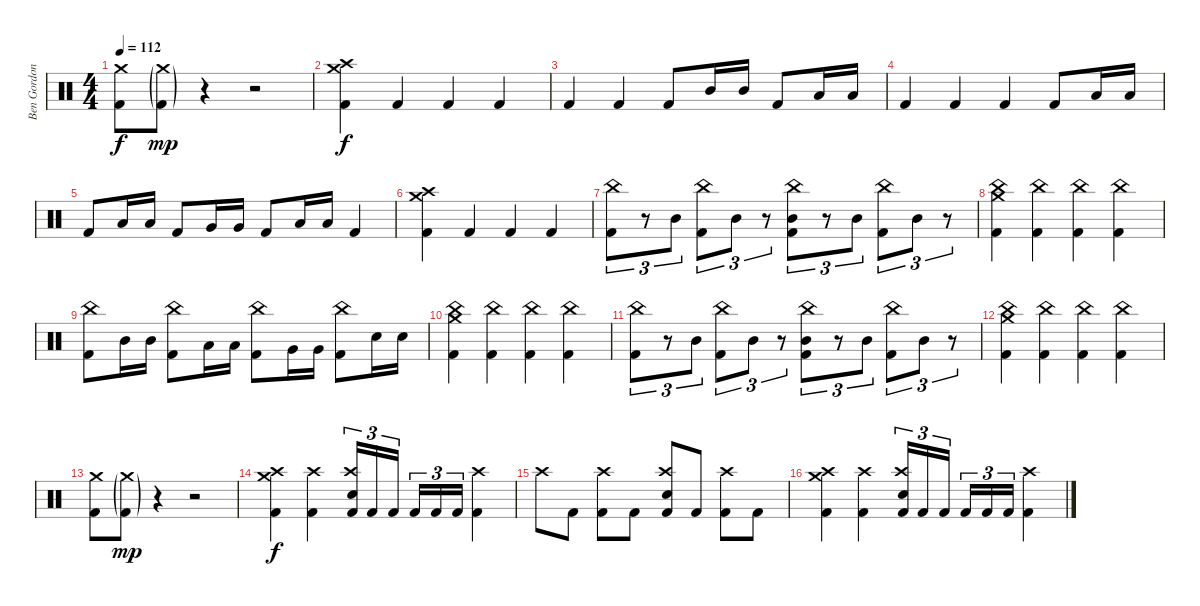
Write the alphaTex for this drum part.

\track ("Ben Gordon" "Ben Gordon") {instrument percussion}
\staff {score}
\articulation defaults
\ts (4 4)
\tempo 112
\clef neutral
\ks c
("Crash medium (hit)" "Kick (hit) 2").8{dy f} ("Crash medium (hit)"{g} "Kick (hit) 2"{g}).8{dy mp} r.4 r.2 |
("Crash medium (hit)" "Crash high (hit)" "Kick (hit) 2").4{dy f} "Kick (hit) 2".4 "Kick (hit) 2".4 "Kick (hit) 2".4 |
"Kick (hit) 2".4 "Kick (hit) 2".4 "Kick (hit) 2".8 "Mid Tom (hit)".16 "Mid Tom (hit)".16 "Kick (hit) 2".8 "Low Tom (hit)".16 "Low Tom (hit)".16 |
"Kick (hit) 2".4 "Kick (hit) 2".4 "Kick (hit) 2".4 "Kick (hit) 2".8 "Low Tom (hit)".16 "Low Tom (hit)".16 |
"Kick (hit) 2".8 "Low Tom (hit)".16 "Low Tom (hit)".16 "Kick (hit) 2".8 "Very Low Tom (hit)".16 "Very Low Tom (hit)".16 "Kick (hit) 2".8 "Low Floor Tom (hit)".16 "Low Floor Tom (hit)".16 "Kick (hit) 2".4 |
("Crash medium (hit)" "Crash high (hit)" "Kick (hit) 2").4 "Kick (hit) 2".4 "Kick (hit) 2".4 "Kick (hit) 2".4 |
("China (hit)" "Kick (hit) 2").8{tu (3 2)} r.8{tu (3 2)} "Mid Tom (hit)".8{tu (3 2)} ("China (hit)" "Kick (hit) 2").8{tu (3 2)} "Mid Tom (hit)".8{tu (3 2)} r.8{tu (3 2)} ("China (hit)" "Mid Tom (hit)" "Kick (hit) 2").8{tu (3 2)} r.8{tu (3 2)} "Mid Tom (hit)".8{tu (3 2)} ("China (hit)" "Kick (hit) 2").8{tu (3 2)} "Mid Tom (hit)".8{tu (3 2)} r.8{tu (3 2)} |
("China (hit)" "Crash medium (hit)" "Kick (hit) 2").4 ("China (hit)" "Kick (hit) 2").4 ("China (hit)" "Kick (hit) 2").4 ("China (hit)" "Kick (hit) 2").4 |
("China (hit)" "Kick (hit) 2").8 "Mid Tom (hit)".16 "Mid Tom (hit)".16 ("China (hit)" "Kick (hit) 2").8 "Low Tom (hit)".16 "Low Tom (hit)".16 ("China (hit)" "Kick (hit) 2").8 "Very Low Tom (hit)".16 "Very Low Tom (hit)".16 ("China (hit)" "Kick (hit) 2").8 "Electric Snare (hit)".16 "Electric Snare (hit)".16 |
("China (hit)" "Crash medium (hit)" "Kick (hit) 2").4 ("China (hit)" "Kick (hit) 2").4 ("China (hit)" "Kick (hit) 2").4 ("China (hit)" "Kick (hit) 2").4 |
("China (hit)" "Kick (hit) 2").8{tu (3 2)} r.8{tu (3 2)} "Mid Tom (hit)".8{tu (3 2)} ("China (hit)" "Kick (hit) 2").8{tu (3 2)} "Mid Tom (hit)".8{tu (3 2)} r.8{tu (3 2)} ("China (hit)" "Mid Tom (hit)" "Kick (hit) 2").8{tu (3 2)} r.8{tu (3 2)} "Mid Tom (hit)".8{tu (3 2)} ("China (hit)" "Kick (hit) 2").8{tu (3 2)} "Mid Tom (hit)".8{tu (3 2)} r.8{tu (3 2)} |
("China (hit)" "Crash medium (hit)" "Kick (hit) 2").4 ("China (hit)" "Kick (hit) 2").4 ("China (hit)" "Kick (hit) 2").4 ("China (hit)" "Kick (hit) 2").4 |
("Crash medium (hit)" "Kick (hit) 2").8 ("Crash medium (hit)"{g} "Kick (hit) 2"{g}).8{dy mp} r.4 r.2 |
("Crash medium (hit)" "Crash high (hit)" "Kick (hit) 2").4{dy f} ("Crash high (hit)" "Kick (hit) 2").4 ("Crash high (hit)" "Electric Snare (hit)" "Kick (hit) 2").16{tu (3 2)} "Kick (hit) 2".16{tu (3 2)} "Kick (hit) 2".16{tu (3 2) beam splitsecondary} "Kick (hit) 2".16{tu (3 2)} "Kick (hit) 2".16{tu (3 2)} "Kick (hit) 2".16{tu (3 2)} ("Crash high (hit)" "Kick (hit) 2").4 |
"Crash high (hit)".8 "Kick (hit) 2".8 ("Crash high (hit)" "Kick (hit) 2").8 "Kick (hit) 2".8 ("Crash high (hit)" "Electric Snare (hit)" "Kick (hit) 2").8 "Kick (hit) 2".8 ("Crash high (hit)" "Kick (hit) 2").8 "Kick (hit) 2".8 |
("Crash medium (hit)" "Crash high (hit)" "Kick (hit) 2").4 ("Crash high (hit)" "Kick (hit) 2").4 ("Crash high (hit)" "Electric Snare (hit)" "Kick (hit) 2").16{tu (3 2)} "Kick (hit) 2".16{tu (3 2)} "Kick (hit) 2".16{tu (3 2) beam splitsecondary} "Kick (hit) 2".16{tu (3 2)} "Kick (hit) 2".16{tu (3 2)} "Kick (hit) 2".16{tu (3 2)} ("Crash high (hit)" "Kick (hit) 2").4
